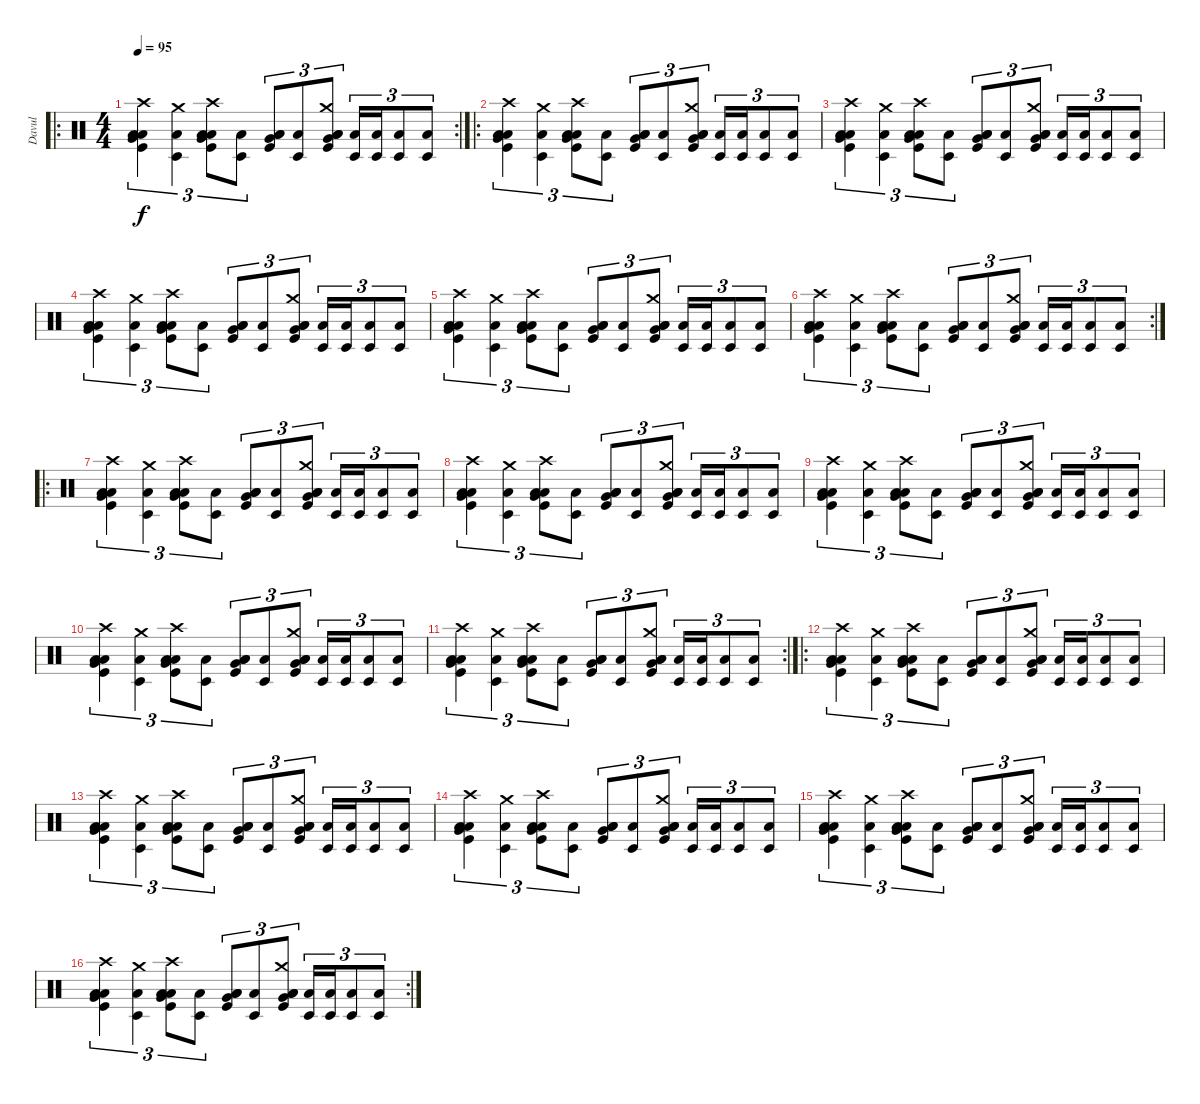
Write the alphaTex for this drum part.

\track ("Davul" "Davul") {instrument percussion}
\staff {score}
\articulation defaults
\ro
\rc 2
\ts (4 4)
\tempo 95
\clef neutral
\ks c
("Kick (hit)" "Low Tom (hit)" "Low Floor Tom (hit)" "Very Low Tom (hit)" "Crash high (hit)").4{tu (3 2) dy f} ("Timbale low (hit)" "Low Floor Tom (hit)" "Crash medium (hit)").4{tu (3 2)} ("Kick (hit)" "Low Tom (hit)" "Low Floor Tom (hit)" "Very Low Tom (hit)" "Crash high (hit)").8{tu (3 2)} ("Timbale low (hit)" "Low Floor Tom (hit)").8{tu (3 2)} ("Kick (hit)" "Low Tom (hit)" "Low Floor Tom (hit)" "Very Low Tom (hit)").8{tu (3 2)} ("Timbale low (hit)" "Low Floor Tom (hit)").8{tu (3 2)} ("Kick (hit)" "Low Tom (hit)" "Low Floor Tom (hit)" "Very Low Tom (hit)" "Crash medium (hit)").8{tu (3 2)} ("Timbale low (hit)" "Low Floor Tom (hit)").16{tu (3 2)} ("Timbale low (hit)" "Low Floor Tom (hit)").16{tu (3 2)} ("Timbale low (hit)" "Low Floor Tom (hit)").8{tu (3 2)} ("Timbale low (hit)" "Low Floor Tom (hit)").8{tu (3 2)} |
\ro
("Kick (hit)" "Low Tom (hit)" "Low Floor Tom (hit)" "Very Low Tom (hit)" "Crash high (hit)").4{tu (3 2)} ("Timbale low (hit)" "Low Floor Tom (hit)" "Crash medium (hit)").4{tu (3 2)} ("Kick (hit)" "Low Tom (hit)" "Low Floor Tom (hit)" "Very Low Tom (hit)" "Crash high (hit)").8{tu (3 2)} ("Timbale low (hit)" "Low Floor Tom (hit)").8{tu (3 2)} ("Kick (hit)" "Low Tom (hit)" "Low Floor Tom (hit)" "Very Low Tom (hit)").8{tu (3 2)} ("Timbale low (hit)" "Low Floor Tom (hit)").8{tu (3 2)} ("Kick (hit)" "Low Tom (hit)" "Low Floor Tom (hit)" "Very Low Tom (hit)" "Crash medium (hit)").8{tu (3 2)} ("Timbale low (hit)" "Low Floor Tom (hit)").16{tu (3 2)} ("Timbale low (hit)" "Low Floor Tom (hit)").16{tu (3 2)} ("Timbale low (hit)" "Low Floor Tom (hit)").8{tu (3 2)} ("Timbale low (hit)" "Low Floor Tom (hit)").8{tu (3 2)} |
("Kick (hit)" "Low Tom (hit)" "Low Floor Tom (hit)" "Very Low Tom (hit)" "Crash high (hit)").4{tu (3 2)} ("Timbale low (hit)" "Low Floor Tom (hit)" "Crash medium (hit)").4{tu (3 2)} ("Kick (hit)" "Low Tom (hit)" "Low Floor Tom (hit)" "Very Low Tom (hit)" "Crash high (hit)").8{tu (3 2)} ("Timbale low (hit)" "Low Floor Tom (hit)").8{tu (3 2)} ("Kick (hit)" "Low Tom (hit)" "Low Floor Tom (hit)" "Very Low Tom (hit)").8{tu (3 2)} ("Timbale low (hit)" "Low Floor Tom (hit)").8{tu (3 2)} ("Kick (hit)" "Low Tom (hit)" "Low Floor Tom (hit)" "Very Low Tom (hit)" "Crash medium (hit)").8{tu (3 2)} ("Timbale low (hit)" "Low Floor Tom (hit)").16{tu (3 2)} ("Timbale low (hit)" "Low Floor Tom (hit)").16{tu (3 2)} ("Timbale low (hit)" "Low Floor Tom (hit)").8{tu (3 2)} ("Timbale low (hit)" "Low Floor Tom (hit)").8{tu (3 2)} |
("Kick (hit)" "Low Tom (hit)" "Low Floor Tom (hit)" "Very Low Tom (hit)" "Crash high (hit)").4{tu (3 2)} ("Timbale low (hit)" "Low Floor Tom (hit)" "Crash medium (hit)").4{tu (3 2)} ("Kick (hit)" "Low Tom (hit)" "Low Floor Tom (hit)" "Very Low Tom (hit)" "Crash high (hit)").8{tu (3 2)} ("Timbale low (hit)" "Low Floor Tom (hit)").8{tu (3 2)} ("Kick (hit)" "Low Tom (hit)" "Low Floor Tom (hit)" "Very Low Tom (hit)").8{tu (3 2)} ("Timbale low (hit)" "Low Floor Tom (hit)").8{tu (3 2)} ("Kick (hit)" "Low Tom (hit)" "Low Floor Tom (hit)" "Very Low Tom (hit)" "Crash medium (hit)").8{tu (3 2)} ("Timbale low (hit)" "Low Floor Tom (hit)").16{tu (3 2)} ("Timbale low (hit)" "Low Floor Tom (hit)").16{tu (3 2)} ("Timbale low (hit)" "Low Floor Tom (hit)").8{tu (3 2)} ("Timbale low (hit)" "Low Floor Tom (hit)").8{tu (3 2)} |
("Kick (hit)" "Low Tom (hit)" "Low Floor Tom (hit)" "Very Low Tom (hit)" "Crash high (hit)").4{tu (3 2)} ("Timbale low (hit)" "Low Floor Tom (hit)" "Crash medium (hit)").4{tu (3 2)} ("Kick (hit)" "Low Tom (hit)" "Low Floor Tom (hit)" "Very Low Tom (hit)" "Crash high (hit)").8{tu (3 2)} ("Timbale low (hit)" "Low Floor Tom (hit)").8{tu (3 2)} ("Kick (hit)" "Low Tom (hit)" "Low Floor Tom (hit)" "Very Low Tom (hit)").8{tu (3 2)} ("Timbale low (hit)" "Low Floor Tom (hit)").8{tu (3 2)} ("Kick (hit)" "Low Tom (hit)" "Low Floor Tom (hit)" "Very Low Tom (hit)" "Crash medium (hit)").8{tu (3 2)} ("Timbale low (hit)" "Low Floor Tom (hit)").16{tu (3 2)} ("Timbale low (hit)" "Low Floor Tom (hit)").16{tu (3 2)} ("Timbale low (hit)" "Low Floor Tom (hit)").8{tu (3 2)} ("Timbale low (hit)" "Low Floor Tom (hit)").8{tu (3 2)} |
\rc 2
("Kick (hit)" "Low Tom (hit)" "Low Floor Tom (hit)" "Very Low Tom (hit)" "Crash high (hit)").4{tu (3 2)} ("Timbale low (hit)" "Low Floor Tom (hit)" "Crash medium (hit)").4{tu (3 2)} ("Kick (hit)" "Low Tom (hit)" "Low Floor Tom (hit)" "Very Low Tom (hit)" "Crash high (hit)").8{tu (3 2)} ("Timbale low (hit)" "Low Floor Tom (hit)").8{tu (3 2)} ("Kick (hit)" "Low Tom (hit)" "Low Floor Tom (hit)" "Very Low Tom (hit)").8{tu (3 2)} ("Timbale low (hit)" "Low Floor Tom (hit)").8{tu (3 2)} ("Kick (hit)" "Low Tom (hit)" "Low Floor Tom (hit)" "Very Low Tom (hit)" "Crash medium (hit)").8{tu (3 2)} ("Timbale low (hit)" "Low Floor Tom (hit)").16{tu (3 2)} ("Timbale low (hit)" "Low Floor Tom (hit)").16{tu (3 2)} ("Timbale low (hit)" "Low Floor Tom (hit)").8{tu (3 2)} ("Timbale low (hit)" "Low Floor Tom (hit)").8{tu (3 2)} |
\ro
("Kick (hit)" "Low Tom (hit)" "Low Floor Tom (hit)" "Very Low Tom (hit)" "Crash high (hit)").4{tu (3 2)} ("Timbale low (hit)" "Low Floor Tom (hit)" "Crash medium (hit)").4{tu (3 2)} ("Kick (hit)" "Low Tom (hit)" "Low Floor Tom (hit)" "Very Low Tom (hit)" "Crash high (hit)").8{tu (3 2)} ("Timbale low (hit)" "Low Floor Tom (hit)").8{tu (3 2)} ("Kick (hit)" "Low Tom (hit)" "Low Floor Tom (hit)" "Very Low Tom (hit)").8{tu (3 2)} ("Timbale low (hit)" "Low Floor Tom (hit)").8{tu (3 2)} ("Kick (hit)" "Low Tom (hit)" "Low Floor Tom (hit)" "Very Low Tom (hit)" "Crash medium (hit)").8{tu (3 2)} ("Timbale low (hit)" "Low Floor Tom (hit)").16{tu (3 2)} ("Timbale low (hit)" "Low Floor Tom (hit)").16{tu (3 2)} ("Timbale low (hit)" "Low Floor Tom (hit)").8{tu (3 2)} ("Timbale low (hit)" "Low Floor Tom (hit)").8{tu (3 2)} |
("Kick (hit)" "Low Tom (hit)" "Low Floor Tom (hit)" "Very Low Tom (hit)" "Crash high (hit)").4{tu (3 2)} ("Timbale low (hit)" "Low Floor Tom (hit)" "Crash medium (hit)").4{tu (3 2)} ("Kick (hit)" "Low Tom (hit)" "Low Floor Tom (hit)" "Very Low Tom (hit)" "Crash high (hit)").8{tu (3 2)} ("Timbale low (hit)" "Low Floor Tom (hit)").8{tu (3 2)} ("Kick (hit)" "Low Tom (hit)" "Low Floor Tom (hit)" "Very Low Tom (hit)").8{tu (3 2)} ("Timbale low (hit)" "Low Floor Tom (hit)").8{tu (3 2)} ("Kick (hit)" "Low Tom (hit)" "Low Floor Tom (hit)" "Very Low Tom (hit)" "Crash medium (hit)").8{tu (3 2)} ("Timbale low (hit)" "Low Floor Tom (hit)").16{tu (3 2)} ("Timbale low (hit)" "Low Floor Tom (hit)").16{tu (3 2)} ("Timbale low (hit)" "Low Floor Tom (hit)").8{tu (3 2)} ("Timbale low (hit)" "Low Floor Tom (hit)").8{tu (3 2)} |
("Kick (hit)" "Low Tom (hit)" "Low Floor Tom (hit)" "Very Low Tom (hit)" "Crash high (hit)").4{tu (3 2)} ("Timbale low (hit)" "Low Floor Tom (hit)" "Crash medium (hit)").4{tu (3 2)} ("Kick (hit)" "Low Tom (hit)" "Low Floor Tom (hit)" "Very Low Tom (hit)" "Crash high (hit)").8{tu (3 2)} ("Timbale low (hit)" "Low Floor Tom (hit)").8{tu (3 2)} ("Kick (hit)" "Low Tom (hit)" "Low Floor Tom (hit)" "Very Low Tom (hit)").8{tu (3 2)} ("Timbale low (hit)" "Low Floor Tom (hit)").8{tu (3 2)} ("Kick (hit)" "Low Tom (hit)" "Low Floor Tom (hit)" "Very Low Tom (hit)" "Crash medium (hit)").8{tu (3 2)} ("Timbale low (hit)" "Low Floor Tom (hit)").16{tu (3 2)} ("Timbale low (hit)" "Low Floor Tom (hit)").16{tu (3 2)} ("Timbale low (hit)" "Low Floor Tom (hit)").8{tu (3 2)} ("Timbale low (hit)" "Low Floor Tom (hit)").8{tu (3 2)} |
("Kick (hit)" "Low Tom (hit)" "Low Floor Tom (hit)" "Very Low Tom (hit)" "Crash high (hit)").4{tu (3 2)} ("Timbale low (hit)" "Low Floor Tom (hit)" "Crash medium (hit)").4{tu (3 2)} ("Kick (hit)" "Low Tom (hit)" "Low Floor Tom (hit)" "Very Low Tom (hit)" "Crash high (hit)").8{tu (3 2)} ("Timbale low (hit)" "Low Floor Tom (hit)").8{tu (3 2)} ("Kick (hit)" "Low Tom (hit)" "Low Floor Tom (hit)" "Very Low Tom (hit)").8{tu (3 2)} ("Timbale low (hit)" "Low Floor Tom (hit)").8{tu (3 2)} ("Kick (hit)" "Low Tom (hit)" "Low Floor Tom (hit)" "Very Low Tom (hit)" "Crash medium (hit)").8{tu (3 2)} ("Timbale low (hit)" "Low Floor Tom (hit)").16{tu (3 2)} ("Timbale low (hit)" "Low Floor Tom (hit)").16{tu (3 2)} ("Timbale low (hit)" "Low Floor Tom (hit)").8{tu (3 2)} ("Timbale low (hit)" "Low Floor Tom (hit)").8{tu (3 2)} |
\rc 2
("Kick (hit)" "Low Tom (hit)" "Low Floor Tom (hit)" "Very Low Tom (hit)" "Crash high (hit)").4{tu (3 2)} ("Timbale low (hit)" "Low Floor Tom (hit)" "Crash medium (hit)").4{tu (3 2)} ("Kick (hit)" "Low Tom (hit)" "Low Floor Tom (hit)" "Very Low Tom (hit)" "Crash high (hit)").8{tu (3 2)} ("Timbale low (hit)" "Low Floor Tom (hit)").8{tu (3 2)} ("Kick (hit)" "Low Tom (hit)" "Low Floor Tom (hit)" "Very Low Tom (hit)").8{tu (3 2)} ("Timbale low (hit)" "Low Floor Tom (hit)").8{tu (3 2)} ("Kick (hit)" "Low Tom (hit)" "Low Floor Tom (hit)" "Very Low Tom (hit)" "Crash medium (hit)").8{tu (3 2)} ("Timbale low (hit)" "Low Floor Tom (hit)").16{tu (3 2)} ("Timbale low (hit)" "Low Floor Tom (hit)").16{tu (3 2)} ("Timbale low (hit)" "Low Floor Tom (hit)").8{tu (3 2)} ("Timbale low (hit)" "Low Floor Tom (hit)").8{tu (3 2)} |
\ro
("Kick (hit)" "Low Tom (hit)" "Low Floor Tom (hit)" "Very Low Tom (hit)" "Crash high (hit)").4{tu (3 2)} ("Timbale low (hit)" "Low Floor Tom (hit)" "Crash medium (hit)").4{tu (3 2)} ("Kick (hit)" "Low Tom (hit)" "Low Floor Tom (hit)" "Very Low Tom (hit)" "Crash high (hit)").8{tu (3 2)} ("Timbale low (hit)" "Low Floor Tom (hit)").8{tu (3 2)} ("Kick (hit)" "Low Tom (hit)" "Low Floor Tom (hit)" "Very Low Tom (hit)").8{tu (3 2)} ("Timbale low (hit)" "Low Floor Tom (hit)").8{tu (3 2)} ("Kick (hit)" "Low Tom (hit)" "Low Floor Tom (hit)" "Very Low Tom (hit)" "Crash medium (hit)").8{tu (3 2)} ("Timbale low (hit)" "Low Floor Tom (hit)").16{tu (3 2)} ("Timbale low (hit)" "Low Floor Tom (hit)").16{tu (3 2)} ("Timbale low (hit)" "Low Floor Tom (hit)").8{tu (3 2)} ("Timbale low (hit)" "Low Floor Tom (hit)").8{tu (3 2)} |
("Kick (hit)" "Low Tom (hit)" "Low Floor Tom (hit)" "Very Low Tom (hit)" "Crash high (hit)").4{tu (3 2)} ("Timbale low (hit)" "Low Floor Tom (hit)" "Crash medium (hit)").4{tu (3 2)} ("Kick (hit)" "Low Tom (hit)" "Low Floor Tom (hit)" "Very Low Tom (hit)" "Crash high (hit)").8{tu (3 2)} ("Timbale low (hit)" "Low Floor Tom (hit)").8{tu (3 2)} ("Kick (hit)" "Low Tom (hit)" "Low Floor Tom (hit)" "Very Low Tom (hit)").8{tu (3 2)} ("Timbale low (hit)" "Low Floor Tom (hit)").8{tu (3 2)} ("Kick (hit)" "Low Tom (hit)" "Low Floor Tom (hit)" "Very Low Tom (hit)" "Crash medium (hit)").8{tu (3 2)} ("Timbale low (hit)" "Low Floor Tom (hit)").16{tu (3 2)} ("Timbale low (hit)" "Low Floor Tom (hit)").16{tu (3 2)} ("Timbale low (hit)" "Low Floor Tom (hit)").8{tu (3 2)} ("Timbale low (hit)" "Low Floor Tom (hit)").8{tu (3 2)} |
("Kick (hit)" "Low Tom (hit)" "Low Floor Tom (hit)" "Very Low Tom (hit)" "Crash high (hit)").4{tu (3 2)} ("Timbale low (hit)" "Low Floor Tom (hit)" "Crash medium (hit)").4{tu (3 2)} ("Kick (hit)" "Low Tom (hit)" "Low Floor Tom (hit)" "Very Low Tom (hit)" "Crash high (hit)").8{tu (3 2)} ("Timbale low (hit)" "Low Floor Tom (hit)").8{tu (3 2)} ("Kick (hit)" "Low Tom (hit)" "Low Floor Tom (hit)" "Very Low Tom (hit)").8{tu (3 2)} ("Timbale low (hit)" "Low Floor Tom (hit)").8{tu (3 2)} ("Kick (hit)" "Low Tom (hit)" "Low Floor Tom (hit)" "Very Low Tom (hit)" "Crash medium (hit)").8{tu (3 2)} ("Timbale low (hit)" "Low Floor Tom (hit)").16{tu (3 2)} ("Timbale low (hit)" "Low Floor Tom (hit)").16{tu (3 2)} ("Timbale low (hit)" "Low Floor Tom (hit)").8{tu (3 2)} ("Timbale low (hit)" "Low Floor Tom (hit)").8{tu (3 2)} |
("Kick (hit)" "Low Tom (hit)" "Low Floor Tom (hit)" "Very Low Tom (hit)" "Crash high (hit)").4{tu (3 2)} ("Timbale low (hit)" "Low Floor Tom (hit)" "Crash medium (hit)").4{tu (3 2)} ("Kick (hit)" "Low Tom (hit)" "Low Floor Tom (hit)" "Very Low Tom (hit)" "Crash high (hit)").8{tu (3 2)} ("Timbale low (hit)" "Low Floor Tom (hit)").8{tu (3 2)} ("Kick (hit)" "Low Tom (hit)" "Low Floor Tom (hit)" "Very Low Tom (hit)").8{tu (3 2)} ("Timbale low (hit)" "Low Floor Tom (hit)").8{tu (3 2)} ("Kick (hit)" "Low Tom (hit)" "Low Floor Tom (hit)" "Very Low Tom (hit)" "Crash medium (hit)").8{tu (3 2)} ("Timbale low (hit)" "Low Floor Tom (hit)").16{tu (3 2)} ("Timbale low (hit)" "Low Floor Tom (hit)").16{tu (3 2)} ("Timbale low (hit)" "Low Floor Tom (hit)").8{tu (3 2)} ("Timbale low (hit)" "Low Floor Tom (hit)").8{tu (3 2)} |
\rc 2
("Kick (hit)" "Low Tom (hit)" "Low Floor Tom (hit)" "Very Low Tom (hit)" "Crash high (hit)").4{tu (3 2)} ("Timbale low (hit)" "Low Floor Tom (hit)" "Crash medium (hit)").4{tu (3 2)} ("Kick (hit)" "Low Tom (hit)" "Low Floor Tom (hit)" "Very Low Tom (hit)" "Crash high (hit)").8{tu (3 2)} ("Timbale low (hit)" "Low Floor Tom (hit)").8{tu (3 2)} ("Kick (hit)" "Low Tom (hit)" "Low Floor Tom (hit)" "Very Low Tom (hit)").8{tu (3 2)} ("Timbale low (hit)" "Low Floor Tom (hit)").8{tu (3 2)} ("Kick (hit)" "Low Tom (hit)" "Low Floor Tom (hit)" "Very Low Tom (hit)" "Crash medium (hit)").8{tu (3 2)} ("Timbale low (hit)" "Low Floor Tom (hit)").16{tu (3 2)} ("Timbale low (hit)" "Low Floor Tom (hit)").16{tu (3 2)} ("Timbale low (hit)" "Low Floor Tom (hit)").8{tu (3 2)} ("Timbale low (hit)" "Low Floor Tom (hit)").8{tu (3 2)}
